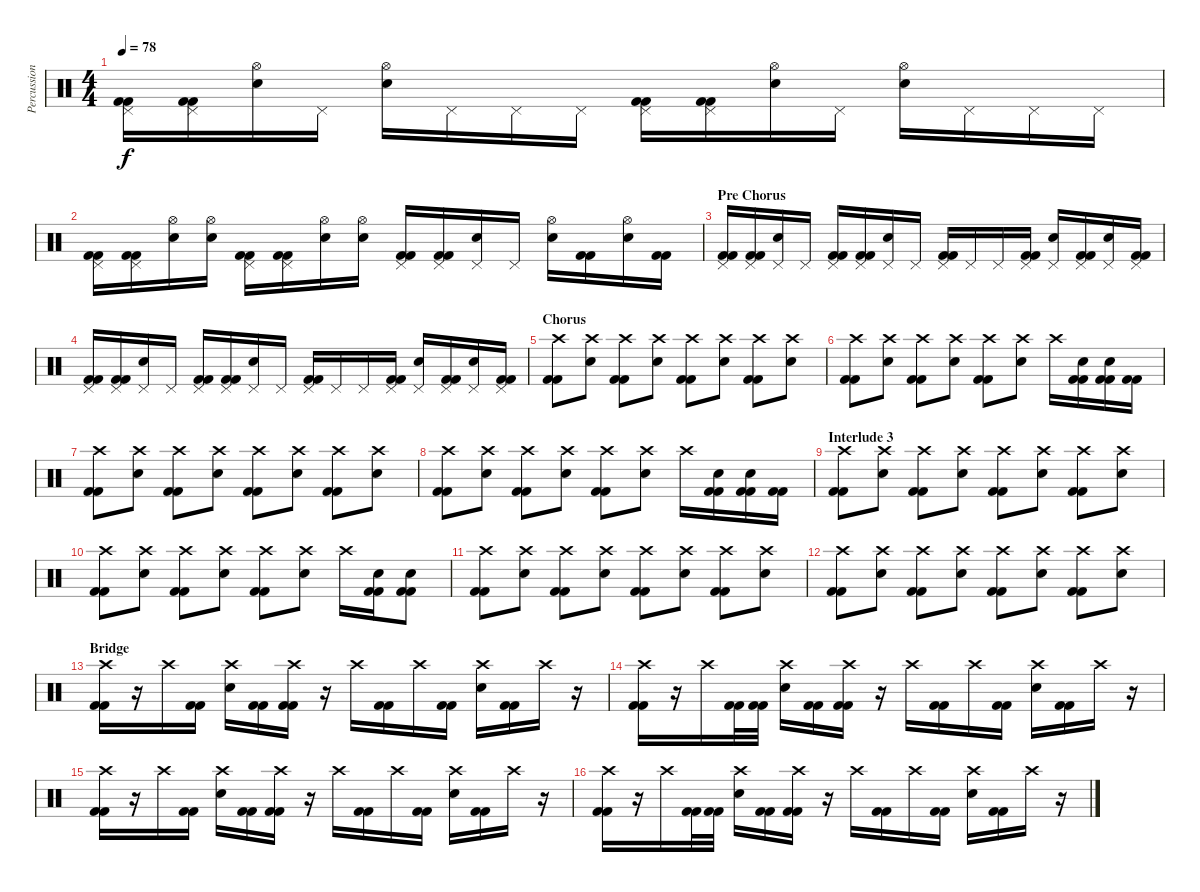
\track ("Percussion" "Percussion") {instrument percussion}
\staff {score}
\articulation defaults
\ts (4 4)
\tempo 78
\clef neutral
\ks c
("Pedal Hi-Hat (hit)" "Kick (hit) 2" "Kick (hit) 2").16{dy f} ("Pedal Hi-Hat (hit)" "Kick (hit) 2" "Kick (hit) 2").16 ("Hi-Hat (open)" "Electric Snare (hit)").16 "Pedal Hi-Hat (hit)".16 ("Hi-Hat (open)" "Electric Snare (hit)").16 "Pedal Hi-Hat (hit)".16 "Pedal Hi-Hat (hit)".16 "Pedal Hi-Hat (hit)".16 ("Pedal Hi-Hat (hit)" "Kick (hit) 2" "Kick (hit) 2").16 ("Pedal Hi-Hat (hit)" "Kick (hit) 2" "Kick (hit) 2").16 ("Hi-Hat (open)" "Electric Snare (hit)").16 "Pedal Hi-Hat (hit)".16 ("Hi-Hat (open)" "Electric Snare (hit)").16 "Pedal Hi-Hat (hit)".16 "Pedal Hi-Hat (hit)".16 "Pedal Hi-Hat (hit)".16 |
("Pedal Hi-Hat (hit)" "Kick (hit) 2" "Kick (hit) 2").16 ("Pedal Hi-Hat (hit)" "Kick (hit) 2" "Kick (hit) 2").16 ("Hi-Hat (open)" "Electric Snare (hit)").16 ("Hi-Hat (open)" "Electric Snare (hit)").16 ("Pedal Hi-Hat (hit)" "Kick (hit) 2" "Kick (hit) 2").16 ("Pedal Hi-Hat (hit)" "Kick (hit) 2" "Kick (hit) 2").16 ("Hi-Hat (open)" "Electric Snare (hit)").16 ("Hi-Hat (open)" "Electric Snare (hit)").16 ("Pedal Hi-Hat (hit)" "Kick (hit) 2" "Kick (hit) 2").16 ("Pedal Hi-Hat (hit)" "Kick (hit) 2" "Kick (hit) 2").16 ("Pedal Hi-Hat (hit)" "Electric Snare (hit)").16 "Pedal Hi-Hat (hit)".16 ("Hi-Hat (open)" "Electric Snare (hit)").16 ("Kick (hit) 2" "Kick (hit) 2").16 ("Hi-Hat (open)" "Electric Snare (hit)").16 ("Kick (hit) 2" "Kick (hit) 2").16 |
\section ("" "Pre Chorus")
("Pedal Hi-Hat (hit)" "Kick (hit) 2" "Kick (hit) 2").16 ("Pedal Hi-Hat (hit)" "Kick (hit) 2" "Kick (hit) 2").16 ("Pedal Hi-Hat (hit)" "Electric Snare (hit)").16 "Pedal Hi-Hat (hit)".16 ("Pedal Hi-Hat (hit)" "Kick (hit) 2" "Kick (hit) 2").16 ("Pedal Hi-Hat (hit)" "Kick (hit) 2" "Kick (hit) 2").16 ("Pedal Hi-Hat (hit)" "Electric Snare (hit)").16 "Pedal Hi-Hat (hit)".16 ("Pedal Hi-Hat (hit)" "Kick (hit) 2" "Kick (hit) 2").16 "Pedal Hi-Hat (hit)".16 "Pedal Hi-Hat (hit)".16 ("Pedal Hi-Hat (hit)" "Kick (hit) 2" "Kick (hit) 2").16 ("Pedal Hi-Hat (hit)" "Electric Snare (hit)").16 ("Pedal Hi-Hat (hit)" "Kick (hit) 2" "Kick (hit) 2").16 ("Pedal Hi-Hat (hit)" "Electric Snare (hit)").16 ("Pedal Hi-Hat (hit)" "Kick (hit) 2" "Kick (hit) 2").16 |
("Pedal Hi-Hat (hit)" "Kick (hit) 2" "Kick (hit) 2").16 ("Pedal Hi-Hat (hit)" "Kick (hit) 2" "Kick (hit) 2").16 ("Pedal Hi-Hat (hit)" "Electric Snare (hit)").16 "Pedal Hi-Hat (hit)".16 ("Pedal Hi-Hat (hit)" "Kick (hit) 2" "Kick (hit) 2").16 ("Pedal Hi-Hat (hit)" "Kick (hit) 2" "Kick (hit) 2").16 ("Pedal Hi-Hat (hit)" "Electric Snare (hit)").16 "Pedal Hi-Hat (hit)".16 ("Pedal Hi-Hat (hit)" "Kick (hit) 2" "Kick (hit) 2").16 "Pedal Hi-Hat (hit)".16 "Pedal Hi-Hat (hit)".16 ("Pedal Hi-Hat (hit)" "Kick (hit) 2" "Kick (hit) 2").16 ("Pedal Hi-Hat (hit)" "Electric Snare (hit)").16 ("Pedal Hi-Hat (hit)" "Kick (hit) 2" "Kick (hit) 2").16 ("Pedal Hi-Hat (hit)" "Electric Snare (hit)").16 ("Pedal Hi-Hat (hit)" "Kick (hit) 2" "Kick (hit) 2").16 |
\section ("" "Chorus")
("Crash high (hit)" "Kick (hit) 2" "Kick (hit) 2").8 ("Crash high (hit)" "Electric Snare (hit)").8 ("Crash high (hit)" "Kick (hit) 2" "Kick (hit) 2").8 ("Crash high (hit)" "Electric Snare (hit)").8 ("Crash high (hit)" "Kick (hit) 2" "Kick (hit) 2").8 ("Crash high (hit)" "Electric Snare (hit)").8 ("Crash high (hit)" "Kick (hit) 2" "Kick (hit) 2").8 ("Crash high (hit)" "Electric Snare (hit)").8 |
("Crash high (hit)" "Kick (hit) 2" "Kick (hit) 2").8 ("Crash high (hit)" "Electric Snare (hit)").8 ("Crash high (hit)" "Kick (hit) 2" "Kick (hit) 2").8 ("Crash high (hit)" "Electric Snare (hit)").8 ("Crash high (hit)" "Kick (hit) 2" "Kick (hit) 2").8 ("Crash high (hit)" "Electric Snare (hit)").8 "Crash high (hit)".16 ("Electric Snare (hit)" "Kick (hit) 2" "Kick (hit) 2").16 ("Electric Snare (hit)" "Kick (hit) 2" "Kick (hit) 2").16 ("Kick (hit) 2" "Kick (hit) 2").16 |
("Crash high (hit)" "Kick (hit) 2" "Kick (hit) 2").8 ("Crash high (hit)" "Electric Snare (hit)").8 ("Crash high (hit)" "Kick (hit) 2" "Kick (hit) 2").8 ("Crash high (hit)" "Electric Snare (hit)").8 ("Crash high (hit)" "Kick (hit) 2" "Kick (hit) 2").8 ("Crash high (hit)" "Electric Snare (hit)").8 ("Crash high (hit)" "Kick (hit) 2" "Kick (hit) 2").8 ("Crash high (hit)" "Electric Snare (hit)").8 |
("Crash high (hit)" "Kick (hit) 2" "Kick (hit) 2").8 ("Crash high (hit)" "Electric Snare (hit)").8 ("Crash high (hit)" "Kick (hit) 2" "Kick (hit) 2").8 ("Crash high (hit)" "Electric Snare (hit)").8 ("Crash high (hit)" "Kick (hit) 2" "Kick (hit) 2").8 ("Crash high (hit)" "Electric Snare (hit)").8 "Crash high (hit)".16 ("Electric Snare (hit)" "Kick (hit) 2" "Kick (hit) 2").16 ("Electric Snare (hit)" "Kick (hit) 2" "Kick (hit) 2").16 ("Kick (hit) 2" "Kick (hit) 2").16 |
\section ("" "Interlude 3")
("Crash high (hit)" "Kick (hit) 2" "Kick (hit) 2").8 ("Crash high (hit)" "Electric Snare (hit)").8 ("Crash high (hit)" "Kick (hit) 2" "Kick (hit) 2").8 ("Crash high (hit)" "Electric Snare (hit)").8 ("Crash high (hit)" "Kick (hit) 2" "Kick (hit) 2").8 ("Crash high (hit)" "Electric Snare (hit)").8 ("Crash high (hit)" "Kick (hit) 2" "Kick (hit) 2").8 ("Crash high (hit)" "Electric Snare (hit)").8 |
("Crash high (hit)" "Kick (hit) 2" "Kick (hit) 2").8 ("Crash high (hit)" "Electric Snare (hit)").8 ("Crash high (hit)" "Kick (hit) 2" "Kick (hit) 2").8 ("Crash high (hit)" "Electric Snare (hit)").8 ("Crash high (hit)" "Kick (hit) 2" "Kick (hit) 2").8 ("Crash high (hit)" "Electric Snare (hit)").8 "Crash high (hit)".16 ("Electric Snare (hit)" "Kick (hit) 2" "Kick (hit) 2").16 ("Electric Snare (hit)" "Kick (hit) 2" "Kick (hit) 2").8 |
("Crash high (hit)" "Kick (hit) 2" "Kick (hit) 2").8 ("Crash high (hit)" "Electric Snare (hit)").8 ("Crash high (hit)" "Kick (hit) 2" "Kick (hit) 2").8 ("Crash high (hit)" "Electric Snare (hit)").8 ("Crash high (hit)" "Kick (hit) 2" "Kick (hit) 2").8 ("Crash high (hit)" "Electric Snare (hit)").8 ("Crash high (hit)" "Kick (hit) 2" "Kick (hit) 2").8 ("Crash high (hit)" "Electric Snare (hit)").8 |
("Crash high (hit)" "Kick (hit) 2" "Kick (hit) 2").8 ("Crash high (hit)" "Electric Snare (hit)").8 ("Crash high (hit)" "Kick (hit) 2" "Kick (hit) 2").8 ("Crash high (hit)" "Electric Snare (hit)").8 ("Crash high (hit)" "Kick (hit) 2" "Kick (hit) 2").8 ("Crash high (hit)" "Electric Snare (hit)").8 ("Crash high (hit)" "Kick (hit) 2" "Kick (hit) 2").8 ("Crash high (hit)" "Electric Snare (hit)").8 |
\section ("" "Bridge")
("Crash high (hit)" "Kick (hit) 2" "Kick (hit) 2").16 r.16 "Crash high (hit)".16 ("Kick (hit) 2" "Kick (hit) 2").16 ("Crash high (hit)" "Electric Snare (hit)").16 ("Kick (hit) 2" "Kick (hit) 2").16 ("Crash high (hit)" "Kick (hit) 2" "Kick (hit) 2").16 r.16 "Crash high (hit)".16 ("Kick (hit) 2" "Kick (hit) 2").16 "Crash high (hit)".16 ("Kick (hit) 2" "Kick (hit) 2").16 ("Crash high (hit)" "Electric Snare (hit)").16 ("Kick (hit) 2" "Kick (hit) 2").16 "Crash high (hit)".16 r.16 |
("Crash high (hit)" "Kick (hit) 2" "Kick (hit) 2").16 r.16 "Crash high (hit)".16 ("Kick (hit) 2" "Kick (hit) 2").32 ("Kick (hit) 2" "Kick (hit) 2").32 ("Crash high (hit)" "Electric Snare (hit)").16 ("Kick (hit) 2" "Kick (hit) 2").16 ("Crash high (hit)" "Kick (hit) 2" "Kick (hit) 2").16 r.16 "Crash high (hit)".16 ("Kick (hit) 2" "Kick (hit) 2").16 "Crash high (hit)".16 ("Kick (hit) 2" "Kick (hit) 2").16 ("Crash high (hit)" "Electric Snare (hit)").16 ("Kick (hit) 2" "Kick (hit) 2").16 "Crash high (hit)".16 r.16 |
("Crash high (hit)" "Kick (hit) 2" "Kick (hit) 2").16 r.16 "Crash high (hit)".16 ("Kick (hit) 2" "Kick (hit) 2").16 ("Crash high (hit)" "Electric Snare (hit)").16 ("Kick (hit) 2" "Kick (hit) 2").16 ("Crash high (hit)" "Kick (hit) 2" "Kick (hit) 2").16 r.16 "Crash high (hit)".16 ("Kick (hit) 2" "Kick (hit) 2").16 "Crash high (hit)".16 ("Kick (hit) 2" "Kick (hit) 2").16 ("Crash high (hit)" "Electric Snare (hit)").16 ("Kick (hit) 2" "Kick (hit) 2").16 "Crash high (hit)".16 r.16 |
("Crash high (hit)" "Kick (hit) 2" "Kick (hit) 2").16 r.16 "Crash high (hit)".16 ("Kick (hit) 2" "Kick (hit) 2").32 ("Kick (hit) 2" "Kick (hit) 2").32 ("Crash high (hit)" "Electric Snare (hit)").16 ("Kick (hit) 2" "Kick (hit) 2").16 ("Crash high (hit)" "Kick (hit) 2" "Kick (hit) 2").16 r.16 "Crash high (hit)".16 ("Kick (hit) 2" "Kick (hit) 2").16 "Crash high (hit)".16 ("Kick (hit) 2" "Kick (hit) 2").16 ("Crash high (hit)" "Electric Snare (hit)").16 ("Kick (hit) 2" "Kick (hit) 2").16 "Crash high (hit)".16 r.16
